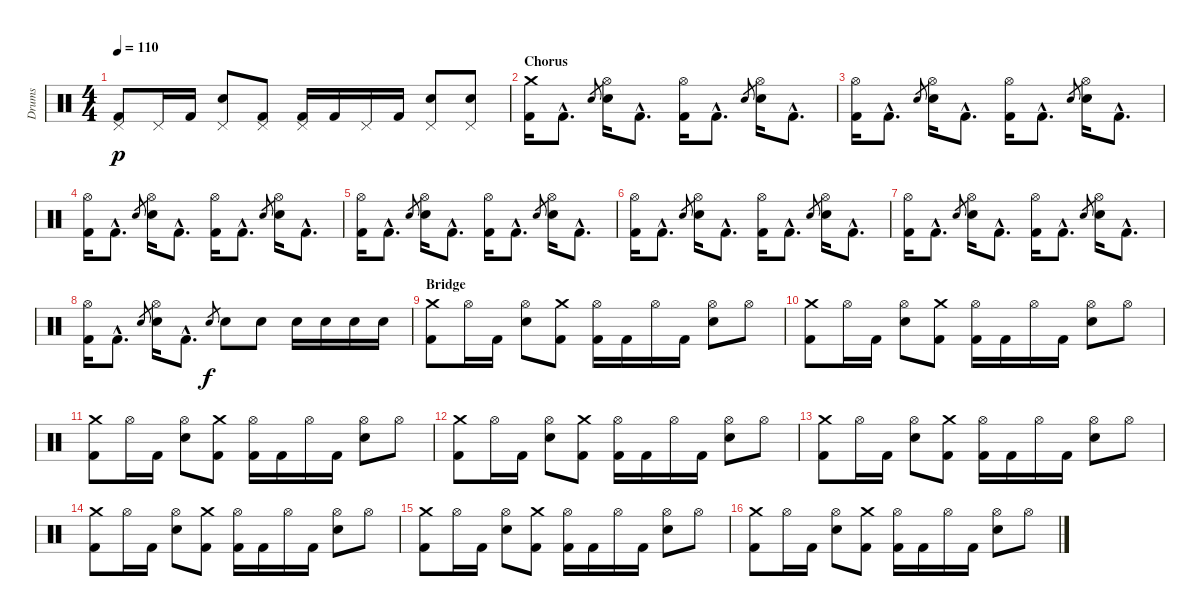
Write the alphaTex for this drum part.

\track ("Drums" "Drums") {instrument percussion}
\staff {score}
\articulation defaults
\ts (4 4)
\tempo 110
\clef neutral
\ks c
("Pedal Hi-Hat (hit)" "Kick (hit) 2").8{dy p} "Pedal Hi-Hat (hit)".16 "Kick (hit) 2".16 ("Pedal Hi-Hat (hit)" "Electric Snare (hit)").8 ("Pedal Hi-Hat (hit)" "Kick (hit) 2").8 ("Pedal Hi-Hat (hit)" "Kick (hit) 2").16 "Kick (hit) 2".16 "Pedal Hi-Hat (hit)".16 "Kick (hit) 2".16 ("Pedal Hi-Hat (hit)" "Electric Snare (hit)").8 ("Pedal Hi-Hat (hit)" "Electric Snare (hit)").8 |
\section ("" "Chorus")
("Crash medium (hit)" "Kick (hit) 2").16 "Kick (hit) 2"{hac}.8{d} "Electric Snare (hit)".8{gr} ("Hi-Hat (open)" "Electric Snare (hit)").16 "Kick (hit) 2"{hac}.8{d} ("Hi-Hat (open)" "Kick (hit) 2").16 "Kick (hit) 2"{hac}.8{d} "Electric Snare (hit)".8{gr} ("Hi-Hat (open)" "Electric Snare (hit)").16 "Kick (hit) 2"{hac}.8{d} |
("Hi-Hat (open)" "Kick (hit) 2").16 "Kick (hit) 2"{hac}.8{d} "Electric Snare (hit)".8{gr} ("Hi-Hat (open)" "Electric Snare (hit)").16 "Kick (hit) 2"{hac}.8{d} ("Hi-Hat (open)" "Kick (hit) 2").16 "Kick (hit) 2"{hac}.8{d} "Electric Snare (hit)".8{gr} ("Hi-Hat (open)" "Electric Snare (hit)").16 "Kick (hit) 2"{hac}.8{d} |
("Hi-Hat (open)" "Kick (hit) 2").16 "Kick (hit) 2"{hac}.8{d} "Electric Snare (hit)".8{gr} ("Hi-Hat (open)" "Electric Snare (hit)").16 "Kick (hit) 2"{hac}.8{d} ("Hi-Hat (open)" "Kick (hit) 2").16 "Kick (hit) 2"{hac}.8{d} "Electric Snare (hit)".8{gr} ("Hi-Hat (open)" "Electric Snare (hit)").16 "Kick (hit) 2"{hac}.8{d} |
("Hi-Hat (open)" "Kick (hit) 2").16 "Kick (hit) 2"{hac}.8{d} "Electric Snare (hit)".8{gr} ("Hi-Hat (open)" "Electric Snare (hit)").16 "Kick (hit) 2"{hac}.8{d} ("Hi-Hat (open)" "Kick (hit) 2").16 "Kick (hit) 2"{hac}.8{d} "Electric Snare (hit)".8{gr} ("Hi-Hat (open)" "Electric Snare (hit)").16 "Kick (hit) 2"{hac}.8{d} |
("Hi-Hat (open)" "Kick (hit) 2").16 "Kick (hit) 2"{hac}.8{d} "Electric Snare (hit)".8{gr} ("Hi-Hat (open)" "Electric Snare (hit)").16 "Kick (hit) 2"{hac}.8{d} ("Hi-Hat (open)" "Kick (hit) 2").16 "Kick (hit) 2"{hac}.8{d} "Electric Snare (hit)".8{gr} ("Hi-Hat (open)" "Electric Snare (hit)").16 "Kick (hit) 2"{hac}.8{d} |
("Hi-Hat (open)" "Kick (hit) 2").16 "Kick (hit) 2"{hac}.8{d} "Electric Snare (hit)".8{gr} ("Hi-Hat (open)" "Electric Snare (hit)").16 "Kick (hit) 2"{hac}.8{d} ("Hi-Hat (open)" "Kick (hit) 2").16 "Kick (hit) 2"{hac}.8{d} "Electric Snare (hit)".8{gr} ("Hi-Hat (open)" "Electric Snare (hit)").16 "Kick (hit) 2"{hac}.8{d} |
("Hi-Hat (open)" "Kick (hit) 2").16 "Kick (hit) 2"{hac}.8{d} "Electric Snare (hit)".8{gr} ("Hi-Hat (open)" "Electric Snare (hit)").16 "Kick (hit) 2"{hac}.8{d} "Electric Snare (hit)".8{gr dy f} "Electric Snare (hit)".8 "Electric Snare (hit)".8 "Electric Snare (hit)".16 "Electric Snare (hit)".16 "Electric Snare (hit)".16 "Electric Snare (hit)".16 |
\section ("" "Bridge")
("Crash medium (hit)" "Kick (hit) 2").8 "Hi-Hat (open)".16 "Kick (hit) 2".16 ("Hi-Hat (open)" "Electric Snare (hit)").8 ("Crash medium (hit)" "Kick (hit) 2").8 ("Hi-Hat (open)" "Kick (hit) 2").16 "Kick (hit) 2".16 "Hi-Hat (open)".16 "Kick (hit) 2".16 ("Hi-Hat (open)" "Electric Snare (hit)").8 "Hi-Hat (open)".8 |
("Crash medium (hit)" "Kick (hit) 2").8 "Hi-Hat (open)".16 "Kick (hit) 2".16 ("Hi-Hat (open)" "Electric Snare (hit)").8 ("Crash medium (hit)" "Kick (hit) 2").8 ("Hi-Hat (open)" "Kick (hit) 2").16 "Kick (hit) 2".16 "Hi-Hat (open)".16 "Kick (hit) 2".16 ("Hi-Hat (open)" "Electric Snare (hit)").8 "Hi-Hat (open)".8 |
("Crash medium (hit)" "Kick (hit) 2").8 "Hi-Hat (open)".16 "Kick (hit) 2".16 ("Hi-Hat (open)" "Electric Snare (hit)").8 ("Crash medium (hit)" "Kick (hit) 2").8 ("Hi-Hat (open)" "Kick (hit) 2").16 "Kick (hit) 2".16 "Hi-Hat (open)".16 "Kick (hit) 2".16 ("Hi-Hat (open)" "Electric Snare (hit)").8 "Hi-Hat (open)".8 |
("Crash medium (hit)" "Kick (hit) 2").8 "Hi-Hat (open)".16 "Kick (hit) 2".16 ("Hi-Hat (open)" "Electric Snare (hit)").8 ("Crash medium (hit)" "Kick (hit) 2").8 ("Hi-Hat (open)" "Kick (hit) 2").16 "Kick (hit) 2".16 "Hi-Hat (open)".16 "Kick (hit) 2".16 ("Hi-Hat (open)" "Electric Snare (hit)").8 "Hi-Hat (open)".8 |
("Crash medium (hit)" "Kick (hit) 2").8 "Hi-Hat (open)".16 "Kick (hit) 2".16 ("Hi-Hat (open)" "Electric Snare (hit)").8 ("Crash medium (hit)" "Kick (hit) 2").8 ("Hi-Hat (open)" "Kick (hit) 2").16 "Kick (hit) 2".16 "Hi-Hat (open)".16 "Kick (hit) 2".16 ("Hi-Hat (open)" "Electric Snare (hit)").8 "Hi-Hat (open)".8 |
("Crash medium (hit)" "Kick (hit) 2").8 "Hi-Hat (open)".16 "Kick (hit) 2".16 ("Hi-Hat (open)" "Electric Snare (hit)").8 ("Crash medium (hit)" "Kick (hit) 2").8 ("Hi-Hat (open)" "Kick (hit) 2").16 "Kick (hit) 2".16 "Hi-Hat (open)".16 "Kick (hit) 2".16 ("Hi-Hat (open)" "Electric Snare (hit)").8 "Hi-Hat (open)".8 |
("Crash medium (hit)" "Kick (hit) 2").8 "Hi-Hat (open)".16 "Kick (hit) 2".16 ("Hi-Hat (open)" "Electric Snare (hit)").8 ("Crash medium (hit)" "Kick (hit) 2").8 ("Hi-Hat (open)" "Kick (hit) 2").16 "Kick (hit) 2".16 "Hi-Hat (open)".16 "Kick (hit) 2".16 ("Hi-Hat (open)" "Electric Snare (hit)").8 "Hi-Hat (open)".8 |
("Crash medium (hit)" "Kick (hit) 2").8 "Hi-Hat (open)".16 "Kick (hit) 2".16 ("Hi-Hat (open)" "Electric Snare (hit)").8 ("Crash medium (hit)" "Kick (hit) 2").8 ("Hi-Hat (open)" "Kick (hit) 2").16 "Kick (hit) 2".16 "Hi-Hat (open)".16 "Kick (hit) 2".16 ("Hi-Hat (open)" "Electric Snare (hit)").8 "Hi-Hat (open)".8
